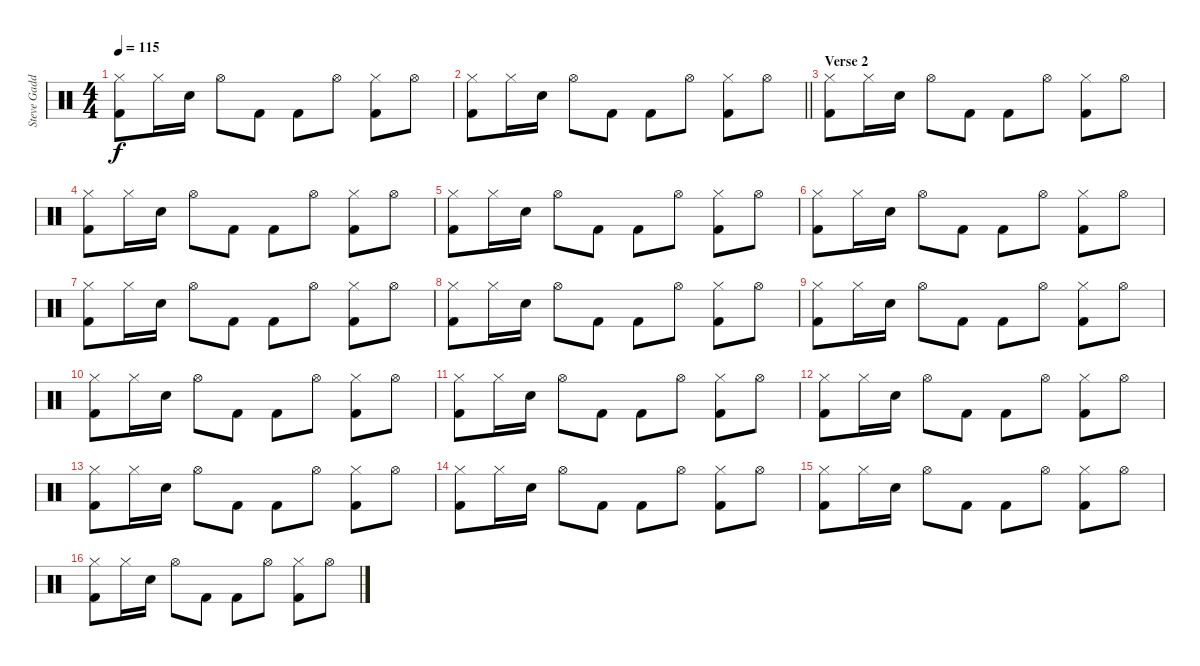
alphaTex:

\track ("Steve Gadd" "Steve Gadd") {instrument percussion}
\staff {score}
\articulation defaults
\ts (4 4)
\tempo 115
\clef neutral
\ks c
("Hi-Hat (closed)" "Kick (hit) 2").8{dy f} "Hi-Hat (closed)".16 "Electric Snare (hit)".16 "Hi-Hat (open)".8 "Kick (hit) 2".8 "Kick (hit) 2".8 "Hi-Hat (open)".8 ("Hi-Hat (closed)" "Kick (hit) 2").8 "Hi-Hat (open)".8 |
\barLineRight lightlight
("Hi-Hat (closed)" "Kick (hit) 2").8 "Hi-Hat (closed)".16 "Electric Snare (hit)".16 "Hi-Hat (open)".8 "Kick (hit) 2".8 "Kick (hit) 2".8 "Hi-Hat (open)".8 ("Hi-Hat (closed)" "Kick (hit) 2").8 "Hi-Hat (open)".8 |
\section ("" "Verse 2")
("Hi-Hat (closed)" "Kick (hit) 2").8 "Hi-Hat (closed)".16 "Electric Snare (hit)".16 "Hi-Hat (open)".8 "Kick (hit) 2".8 "Kick (hit) 2".8 "Hi-Hat (open)".8 ("Hi-Hat (closed)" "Kick (hit) 2").8 "Hi-Hat (open)".8 |
("Hi-Hat (closed)" "Kick (hit) 2").8 "Hi-Hat (closed)".16 "Electric Snare (hit)".16 "Hi-Hat (open)".8 "Kick (hit) 2".8 "Kick (hit) 2".8 "Hi-Hat (open)".8 ("Hi-Hat (closed)" "Kick (hit) 2").8 "Hi-Hat (open)".8 |
("Hi-Hat (closed)" "Kick (hit) 2").8 "Hi-Hat (closed)".16 "Electric Snare (hit)".16 "Hi-Hat (open)".8 "Kick (hit) 2".8 "Kick (hit) 2".8 "Hi-Hat (open)".8 ("Hi-Hat (closed)" "Kick (hit) 2").8 "Hi-Hat (open)".8 |
("Hi-Hat (closed)" "Kick (hit) 2").8 "Hi-Hat (closed)".16 "Electric Snare (hit)".16 "Hi-Hat (open)".8 "Kick (hit) 2".8 "Kick (hit) 2".8 "Hi-Hat (open)".8 ("Hi-Hat (closed)" "Kick (hit) 2").8 "Hi-Hat (open)".8 |
("Hi-Hat (closed)" "Kick (hit) 2").8 "Hi-Hat (closed)".16 "Electric Snare (hit)".16 "Hi-Hat (open)".8 "Kick (hit) 2".8 "Kick (hit) 2".8 "Hi-Hat (open)".8 ("Hi-Hat (closed)" "Kick (hit) 2").8 "Hi-Hat (open)".8 |
("Hi-Hat (closed)" "Kick (hit) 2").8 "Hi-Hat (closed)".16 "Electric Snare (hit)".16 "Hi-Hat (open)".8 "Kick (hit) 2".8 "Kick (hit) 2".8 "Hi-Hat (open)".8 ("Hi-Hat (closed)" "Kick (hit) 2").8 "Hi-Hat (open)".8 |
("Hi-Hat (closed)" "Kick (hit) 2").8 "Hi-Hat (closed)".16 "Electric Snare (hit)".16 "Hi-Hat (open)".8 "Kick (hit) 2".8 "Kick (hit) 2".8 "Hi-Hat (open)".8 ("Hi-Hat (closed)" "Kick (hit) 2").8 "Hi-Hat (open)".8 |
("Hi-Hat (closed)" "Kick (hit) 2").8 "Hi-Hat (closed)".16 "Electric Snare (hit)".16 "Hi-Hat (open)".8 "Kick (hit) 2".8 "Kick (hit) 2".8 "Hi-Hat (open)".8 ("Hi-Hat (closed)" "Kick (hit) 2").8 "Hi-Hat (open)".8 |
("Hi-Hat (closed)" "Kick (hit) 2").8 "Hi-Hat (closed)".16 "Electric Snare (hit)".16 "Hi-Hat (open)".8 "Kick (hit) 2".8 "Kick (hit) 2".8 "Hi-Hat (open)".8 ("Hi-Hat (closed)" "Kick (hit) 2").8 "Hi-Hat (open)".8 |
("Hi-Hat (closed)" "Kick (hit) 2").8 "Hi-Hat (closed)".16 "Electric Snare (hit)".16 "Hi-Hat (open)".8 "Kick (hit) 2".8 "Kick (hit) 2".8 "Hi-Hat (open)".8 ("Hi-Hat (closed)" "Kick (hit) 2").8 "Hi-Hat (open)".8 |
("Hi-Hat (closed)" "Kick (hit) 2").8 "Hi-Hat (closed)".16 "Electric Snare (hit)".16 "Hi-Hat (open)".8 "Kick (hit) 2".8 "Kick (hit) 2".8 "Hi-Hat (open)".8 ("Hi-Hat (closed)" "Kick (hit) 2").8 "Hi-Hat (open)".8 |
("Hi-Hat (closed)" "Kick (hit) 2").8 "Hi-Hat (closed)".16 "Electric Snare (hit)".16 "Hi-Hat (open)".8 "Kick (hit) 2".8 "Kick (hit) 2".8 "Hi-Hat (open)".8 ("Hi-Hat (closed)" "Kick (hit) 2").8 "Hi-Hat (open)".8 |
("Hi-Hat (closed)" "Kick (hit) 2").8 "Hi-Hat (closed)".16 "Electric Snare (hit)".16 "Hi-Hat (open)".8 "Kick (hit) 2".8 "Kick (hit) 2".8 "Hi-Hat (open)".8 ("Hi-Hat (closed)" "Kick (hit) 2").8 "Hi-Hat (open)".8 |
("Hi-Hat (closed)" "Kick (hit) 2").8 "Hi-Hat (closed)".16 "Electric Snare (hit)".16 "Hi-Hat (open)".8 "Kick (hit) 2".8 "Kick (hit) 2".8 "Hi-Hat (open)".8 ("Hi-Hat (closed)" "Kick (hit) 2").8 "Hi-Hat (open)".8
